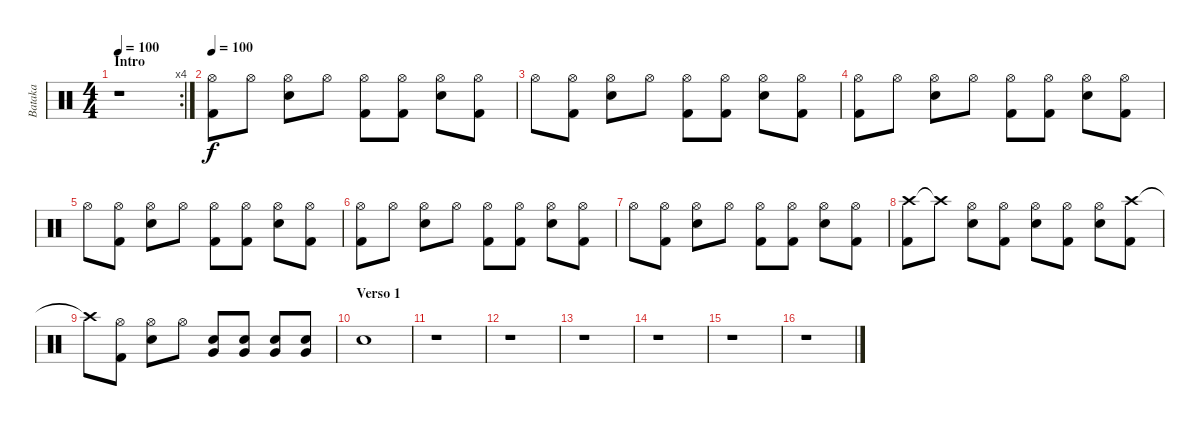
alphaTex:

\track ("Bataka" "Bataka") {instrument percussion}
\staff {score}
\articulation defaults
\rc 4
\ts (4 4)
\section ("" "Intro")
\tempo 100
\tempo 95
\tempo 100
\clef neutral
\ks c
r.1{dy f} |
\tempo 100
("Hi-Hat (open)" "Kick (hit) 2").8 "Hi-Hat (open)".8 ("Hi-Hat (open)" "Snare (hit) 2").8 "Hi-Hat (open)".8 ("Hi-Hat (open)" "Kick (hit) 2").8 ("Hi-Hat (open)" "Kick (hit) 2").8 ("Hi-Hat (open)" "Snare (hit) 2").8 ("Hi-Hat (open)" "Kick (hit) 2").8 |
"Hi-Hat (open)".8 ("Hi-Hat (open)" "Kick (hit) 2").8 ("Hi-Hat (open)" "Snare (hit) 2").8 "Hi-Hat (open)".8 ("Hi-Hat (open)" "Kick (hit) 2").8 ("Hi-Hat (open)" "Kick (hit) 2").8 ("Hi-Hat (open)" "Snare (hit) 2").8 ("Hi-Hat (open)" "Kick (hit) 2").8 |
("Hi-Hat (open)" "Kick (hit) 2").8 "Hi-Hat (open)".8 ("Hi-Hat (open)" "Snare (hit) 2").8 "Hi-Hat (open)".8 ("Hi-Hat (open)" "Kick (hit) 2").8 ("Hi-Hat (open)" "Kick (hit) 2").8 ("Hi-Hat (open)" "Snare (hit) 2").8 ("Hi-Hat (open)" "Kick (hit) 2").8 |
"Hi-Hat (open)".8 ("Hi-Hat (open)" "Kick (hit) 2").8 ("Hi-Hat (open)" "Snare (hit) 2").8 "Hi-Hat (open)".8 ("Hi-Hat (open)" "Kick (hit) 2").8 ("Hi-Hat (open)" "Kick (hit) 2").8 ("Hi-Hat (open)" "Snare (hit) 2").8 ("Hi-Hat (open)" "Kick (hit) 2").8 |
("Hi-Hat (open)" "Kick (hit) 2").8 "Hi-Hat (open)".8 ("Hi-Hat (open)" "Snare (hit) 2").8 "Hi-Hat (open)".8 ("Hi-Hat (open)" "Kick (hit) 2").8 ("Hi-Hat (open)" "Kick (hit) 2").8 ("Hi-Hat (open)" "Snare (hit) 2").8 ("Hi-Hat (open)" "Kick (hit) 2").8 |
"Hi-Hat (open)".8 ("Hi-Hat (open)" "Kick (hit) 2").8 ("Hi-Hat (open)" "Snare (hit) 2").8 "Hi-Hat (open)".8 ("Hi-Hat (open)" "Kick (hit) 2").8 ("Hi-Hat (open)" "Kick (hit) 2").8 ("Hi-Hat (open)" "Snare (hit) 2").8 ("Hi-Hat (open)" "Kick (hit) 2").8 |
("Crash high (hit)" "Kick (hit) 2").8 "Crash high (hit)"{t}.8 ("Hi-Hat (open)" "Snare (hit) 2").8 ("Hi-Hat (open)" "Kick (hit) 2").8 ("Hi-Hat (open)" "Snare (hit) 2").8 ("Hi-Hat (open)" "Kick (hit) 2").8 ("Hi-Hat (open)" "Snare (hit) 2").8 ("Crash high (hit)" "Kick (hit) 2").8 |
"Crash high (hit)"{t}.8 ("Hi-Hat (open)" "Kick (hit) 2").8 ("Hi-Hat (open)" "Snare (hit) 2").8 "Hi-Hat (open)".8 ("Very Low Tom (hit)" "Snare (hit) 2").8 ("Very Low Tom (hit)" "Snare (hit) 2").8 ("Very Low Tom (hit)" "Snare (hit) 2").8 ("Very Low Tom (hit)" "Snare (hit) 2").8 |
\section ("" "Verso 1")
"Snare (hit) 2".1 |
r.1 |
r.1 |
r.1 |
r.1 |
r.1 |
r.1
